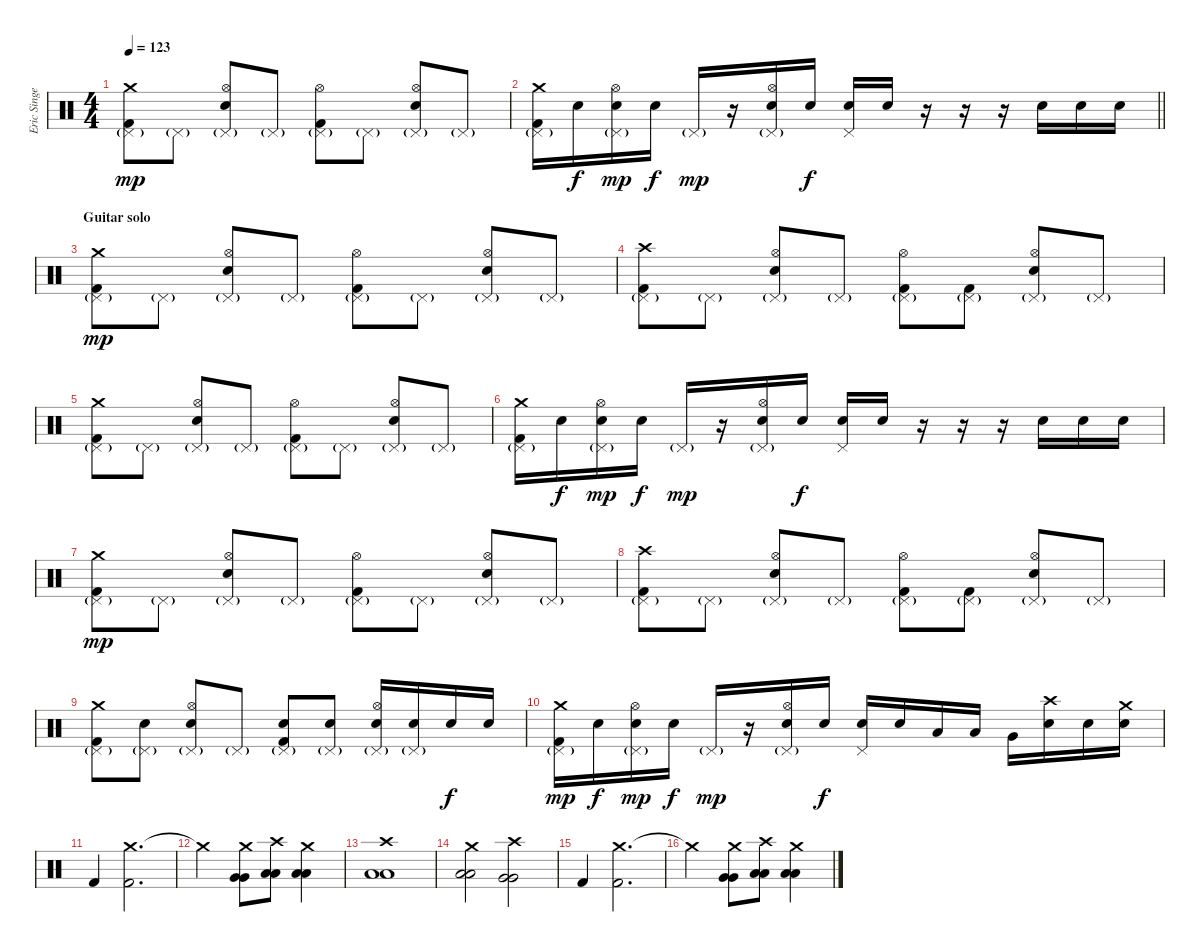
\track ("Eric Singer" "Eric Singe") {instrument percussion}
\staff {score}
\articulation defaults
\ts (4 4)
\tempo 123
\clef neutral
\ks c
("Crash medium (hit)" "Pedal Hi-Hat (hit)"{g} "Kick (hit) 2").8{dy mp} "Pedal Hi-Hat (hit)"{g}.8 ("Hi-Hat (open)" "Pedal Hi-Hat (hit)"{g} "Snare (hit) 2").8 "Pedal Hi-Hat (hit)"{g}.8 ("Hi-Hat (open)" "Pedal Hi-Hat (hit)"{g} "Kick (hit) 2").8 "Pedal Hi-Hat (hit)"{g}.8 ("Hi-Hat (open)" "Pedal Hi-Hat (hit)"{g} "Snare (hit) 2").8 "Pedal Hi-Hat (hit)"{g}.8 |
\barLineRight lightlight
("Crash medium (hit)" "Pedal Hi-Hat (hit)"{g} "Kick (hit) 2").16 "Snare (hit) 2".16{dy f} ("Hi-Hat (open)" "Pedal Hi-Hat (hit)"{g} "Snare (hit) 2").16{dy mp} "Snare (hit) 2".16{dy f} "Pedal Hi-Hat (hit)"{g}.16{dy mp} r.16 ("Hi-Hat (open)" "Pedal Hi-Hat (hit)"{g} "Snare (hit) 2").16 "Snare (hit) 2".16{dy f} ("Pedal Hi-Hat (hit)" "Snare (hit) 2").16 "Snare (hit) 2".16 r.16 r.16 r.16 "Snare (hit) 2".16 "Snare (hit) 2".16 "Snare (hit) 2".16 |
\section ("" "Guitar solo")
("Crash medium (hit)" "Pedal Hi-Hat (hit)"{g} "Kick (hit) 2").8{dy mp} "Pedal Hi-Hat (hit)"{g}.8 ("Hi-Hat (open)" "Pedal Hi-Hat (hit)"{g} "Snare (hit) 2").8 "Pedal Hi-Hat (hit)"{g}.8 ("Hi-Hat (open)" "Pedal Hi-Hat (hit)"{g} "Kick (hit) 2").8 "Pedal Hi-Hat (hit)"{g}.8 ("Hi-Hat (open)" "Pedal Hi-Hat (hit)"{g} "Snare (hit) 2").8 "Pedal Hi-Hat (hit)"{g}.8 |
("Crash high (hit)" "Pedal Hi-Hat (hit)"{g} "Kick (hit) 2").8 "Pedal Hi-Hat (hit)"{g}.8 ("Hi-Hat (open)" "Pedal Hi-Hat (hit)"{g} "Snare (hit) 2").8 "Pedal Hi-Hat (hit)"{g}.8 ("Hi-Hat (open)" "Pedal Hi-Hat (hit)"{g} "Kick (hit) 2").8 ("Pedal Hi-Hat (hit)"{g} "Kick (hit) 2").8 ("Hi-Hat (open)" "Pedal Hi-Hat (hit)"{g} "Snare (hit) 2").8 "Pedal Hi-Hat (hit)"{g}.8 |
("Crash medium (hit)" "Pedal Hi-Hat (hit)"{g} "Kick (hit) 2").8 "Pedal Hi-Hat (hit)"{g}.8 ("Hi-Hat (open)" "Pedal Hi-Hat (hit)"{g} "Snare (hit) 2").8 "Pedal Hi-Hat (hit)"{g}.8 ("Hi-Hat (open)" "Pedal Hi-Hat (hit)"{g} "Kick (hit) 2").8 "Pedal Hi-Hat (hit)"{g}.8 ("Hi-Hat (open)" "Pedal Hi-Hat (hit)"{g} "Snare (hit) 2").8 "Pedal Hi-Hat (hit)"{g}.8 |
("Crash medium (hit)" "Pedal Hi-Hat (hit)"{g} "Kick (hit) 2").16 "Snare (hit) 2".16{dy f} ("Hi-Hat (open)" "Pedal Hi-Hat (hit)"{g} "Snare (hit) 2").16{dy mp} "Snare (hit) 2".16{dy f} "Pedal Hi-Hat (hit)"{g}.16{dy mp} r.16 ("Hi-Hat (open)" "Pedal Hi-Hat (hit)"{g} "Snare (hit) 2").16 "Snare (hit) 2".16{dy f} ("Pedal Hi-Hat (hit)" "Snare (hit) 2").16 "Snare (hit) 2".16 r.16 r.16 r.16 "Snare (hit) 2".16 "Snare (hit) 2".16 "Snare (hit) 2".16 |
("Crash medium (hit)" "Pedal Hi-Hat (hit)"{g} "Kick (hit) 2").8{dy mp} "Pedal Hi-Hat (hit)"{g}.8 ("Hi-Hat (open)" "Pedal Hi-Hat (hit)"{g} "Snare (hit) 2").8 "Pedal Hi-Hat (hit)"{g}.8 ("Hi-Hat (open)" "Pedal Hi-Hat (hit)"{g} "Kick (hit) 2").8 "Pedal Hi-Hat (hit)"{g}.8 ("Hi-Hat (open)" "Pedal Hi-Hat (hit)"{g} "Snare (hit) 2").8 "Pedal Hi-Hat (hit)"{g}.8 |
("Crash high (hit)" "Pedal Hi-Hat (hit)"{g} "Kick (hit) 2").8 "Pedal Hi-Hat (hit)"{g}.8 ("Hi-Hat (open)" "Pedal Hi-Hat (hit)"{g} "Snare (hit) 2").8 "Pedal Hi-Hat (hit)"{g}.8 ("Hi-Hat (open)" "Pedal Hi-Hat (hit)"{g} "Kick (hit) 2").8 ("Pedal Hi-Hat (hit)"{g} "Kick (hit) 2").8 ("Hi-Hat (open)" "Pedal Hi-Hat (hit)"{g} "Snare (hit) 2").8 "Pedal Hi-Hat (hit)"{g}.8 |
("Crash medium (hit)" "Pedal Hi-Hat (hit)"{g} "Kick (hit) 2").8 ("Snare (hit) 2" "Pedal Hi-Hat (hit)"{g}).8 ("Hi-Hat (open)" "Pedal Hi-Hat (hit)"{g} "Snare (hit) 2").8 "Pedal Hi-Hat (hit)"{g}.8 ("Snare (hit) 2" "Pedal Hi-Hat (hit)"{g} "Kick (hit) 2").8 ("Snare (hit) 2" "Pedal Hi-Hat (hit)"{g}).8 ("Hi-Hat (open)" "Pedal Hi-Hat (hit)"{g} "Snare (hit) 2").16 ("Snare (hit) 2" "Pedal Hi-Hat (hit)"{g}).16 "Snare (hit) 2".16{dy f} "Snare (hit) 2".16 |
("Crash medium (hit)" "Pedal Hi-Hat (hit)"{g} "Kick (hit) 2").16{dy mp} "Snare (hit) 2".16{dy f} ("Hi-Hat (open)" "Pedal Hi-Hat (hit)"{g} "Snare (hit) 2").16{dy mp} "Snare (hit) 2".16{dy f} "Pedal Hi-Hat (hit)"{g}.16{dy mp} r.16 ("Hi-Hat (open)" "Pedal Hi-Hat (hit)"{g} "Snare (hit) 2").16 "Snare (hit) 2".16{dy f} ("Pedal Hi-Hat (hit)" "Snare (hit) 2").16 "Snare (hit) 2".16 "Low Floor Tom (hit)".16 "Low Floor Tom (hit)".16 "Very Low Tom (hit)".16 ("Crash high (hit)" "Snare (hit) 2").16 "Snare (hit) 2".16 ("Crash medium (hit)" "Snare (hit) 2").16 |
"Kick (hit) 2".4 ("Crash medium (hit)" "Kick (hit) 2").2{d} |
"Crash medium (hit)"{t}.2 ("Crash medium (hit)" "Very Low Tom (hit)" "Very Low Tom (hit)").8 ("Crash high (hit)" "Low Tom (hit)" "Low Tom (hit)").8 ("Crash medium (hit)" "Low Floor Tom (hit)" "Low Floor Tom (hit)").4 |
("Crash high (hit)" "Low Floor Tom (hit)" "Low Floor Tom (hit)").1 |
("Crash medium (hit)" "Low Floor Tom (hit)" "Low Floor Tom (hit)").2 ("Crash high (hit)" "Very Low Tom (hit)" "Very Low Tom (hit)").2 |
"Kick (hit) 2".4 ("Crash medium (hit)" "Kick (hit) 2").2{d} |
"Crash medium (hit)"{t}.2 ("Crash medium (hit)" "Very Low Tom (hit)" "Very Low Tom (hit)").8 ("Crash high (hit)" "Low Tom (hit)" "Low Tom (hit)").8 ("Crash medium (hit)" "Low Floor Tom (hit)" "Low Floor Tom (hit)").4
